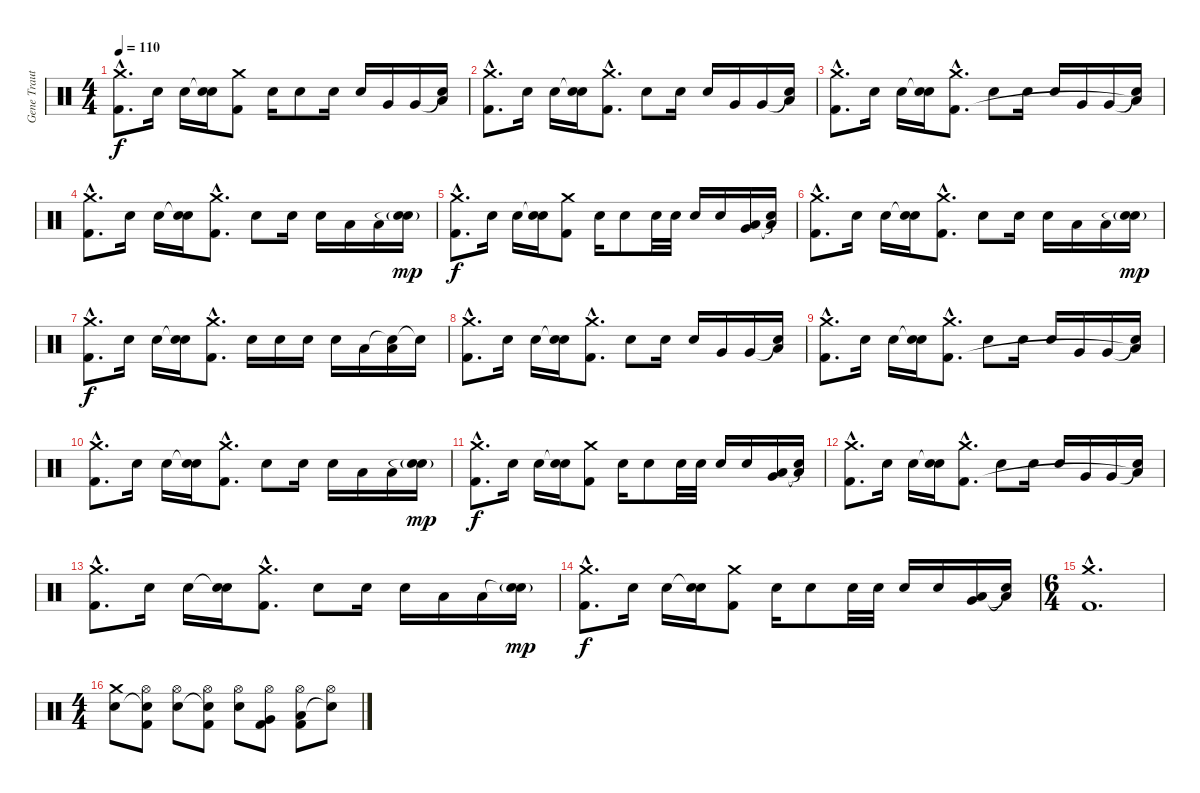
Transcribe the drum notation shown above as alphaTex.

\track ("Gene Trautmann (Drums)" "Gene Traut") {instrument percussion}
\staff {score}
\articulation defaults
\ts (4 4)
\tempo 110
\clef neutral
\ks c
("Crash medium (hit)"{hac} "Kick (hit) 2"{hac}).8{d dy f} "Electric Snare (hit)".16 "Electric Snare (hit)".16 ("Snare (hit)"{t} "Electric Snare (hit)").16 ("Crash medium (hit)" "Kick (hit) 2").8 "Electric Snare (hit)".16 "Electric Snare (hit)".8 "Electric Snare (hit)".16 "Electric Snare (hit)".16 "Very Low Tom (hit)".16 "Very Low Tom (hit)".16 ("Snare (hit)"{t} "Low Floor Tom (hit)").16 |
("Crash medium (hit)"{hac} "Kick (hit) 2"{hac}).8{d} "Electric Snare (hit)".16 "Electric Snare (hit)".16 ("Snare (hit)"{t} "Electric Snare (hit)").16 ("Crash medium (hit)"{hac} "Kick (hit) 2"{hac}).8{d} "Electric Snare (hit)".8 "Electric Snare (hit)".16 "Electric Snare (hit)".16 "Very Low Tom (hit)".16 "Very Low Tom (hit)".16 ("Snare (hit)"{t} "Low Floor Tom (hit)").16 |
("Crash medium (hit)"{hac} "Kick (hit) 2"{hac}).8{d} "Electric Snare (hit)".16 "Electric Snare (hit)".16 ("Snare (hit)"{t} "Electric Snare (hit)").16 ("Crash medium (hit)"{hac} "Kick (hit) 2"{hac}).8{d} "Electric Snare (hit)".8 "Electric Snare (hit)".16 "Electric Snare (hit)".16 "Very Low Tom (hit)".16 "Very Low Tom (hit)".16 ("Snare (hit)"{t} "Low Floor Tom (hit)"{t}).16 |
("Crash medium (hit)"{hac} "Kick (hit) 2"{hac}).8{d} "Electric Snare (hit)".16 "Electric Snare (hit)".16 ("Snare (hit)"{t} "Electric Snare (hit)").16 ("Crash medium (hit)"{hac} "Kick (hit) 2"{hac}).8{d} "Electric Snare (hit)".8 "Electric Snare (hit)".16 "Electric Snare (hit)".16 "Low Floor Tom (hit)".16 "Low Floor Tom (hit)".16 ("Snare (hit)"{t} "Electric Snare (hit)"{g}).16{dy mp} |
("Crash medium (hit)"{hac} "Kick (hit) 2"{hac}).8{d dy f} "Electric Snare (hit)".16 "Electric Snare (hit)".16 ("Snare (hit)"{t} "Electric Snare (hit)").16 ("Crash medium (hit)" "Kick (hit) 2").8 "Electric Snare (hit)".16 "Electric Snare (hit)".8 "Electric Snare (hit)".32 "Electric Snare (hit)".32 "Electric Snare (hit)".16 "Electric Snare (hit)".16 ("Very Low Tom (hit)" "Low Floor Tom (hit)").16 ("Snare (hit)"{t} "Low Floor Tom (hit)"{t}).16 |
("Crash medium (hit)"{hac} "Kick (hit) 2"{hac}).8{d} "Electric Snare (hit)".16 "Electric Snare (hit)".16 ("Snare (hit)"{t} "Electric Snare (hit)").16 ("Crash medium (hit)"{hac} "Kick (hit) 2"{hac}).8{d} "Electric Snare (hit)".8 "Electric Snare (hit)".16 "Electric Snare (hit)".16 "Low Floor Tom (hit)".16 "Low Floor Tom (hit)".16 ("Snare (hit)"{t} "Electric Snare (hit)"{g}).16{dy mp} |
("Crash medium (hit)"{hac} "Kick (hit) 2"{hac}).8{d dy f} "Electric Snare (hit)".16 "Electric Snare (hit)".16 ("Snare (hit)"{t} "Electric Snare (hit)").16 ("Crash medium (hit)"{hac} "Kick (hit) 2"{hac}).8{d} "Electric Snare (hit)".16 "Electric Snare (hit)".16 "Electric Snare (hit)".16 "Electric Snare (hit)".16 "Low Floor Tom (hit)".16 ("Snare (hit)"{t} "Low Floor Tom (hit)").16 "Snare (hit)"{t}.16 |
("Crash medium (hit)"{hac} "Kick (hit) 2"{hac}).8{d} "Electric Snare (hit)".16 "Electric Snare (hit)".16 ("Snare (hit)"{t} "Electric Snare (hit)").16 ("Crash medium (hit)"{hac} "Kick (hit) 2"{hac}).8{d} "Electric Snare (hit)".8 "Electric Snare (hit)".16 "Electric Snare (hit)".16 "Very Low Tom (hit)".16 "Very Low Tom (hit)".16 ("Snare (hit)"{t} "Low Floor Tom (hit)").16 |
("Crash medium (hit)"{hac} "Kick (hit) 2"{hac}).8{d} "Electric Snare (hit)".16 "Electric Snare (hit)".16 ("Snare (hit)"{t} "Electric Snare (hit)").16 ("Crash medium (hit)"{hac} "Kick (hit) 2"{hac}).8{d} "Electric Snare (hit)".8 "Electric Snare (hit)".16 "Electric Snare (hit)".16 "Very Low Tom (hit)".16 "Very Low Tom (hit)".16 ("Snare (hit)"{t} "Low Floor Tom (hit)"{t}).16 |
("Crash medium (hit)"{hac} "Kick (hit) 2"{hac}).8{d} "Electric Snare (hit)".16 "Electric Snare (hit)".16 ("Snare (hit)"{t} "Electric Snare (hit)").16 ("Crash medium (hit)"{hac} "Kick (hit) 2"{hac}).8{d} "Electric Snare (hit)".8 "Electric Snare (hit)".16 "Electric Snare (hit)".16 "Low Floor Tom (hit)".16 "Low Floor Tom (hit)".16 ("Snare (hit)"{t} "Electric Snare (hit)"{g}).16{dy mp} |
("Crash medium (hit)"{hac} "Kick (hit) 2"{hac}).8{d dy f} "Electric Snare (hit)".16 "Electric Snare (hit)".16 ("Snare (hit)"{t} "Electric Snare (hit)").16 ("Crash medium (hit)" "Kick (hit) 2").8 "Electric Snare (hit)".16 "Electric Snare (hit)".8 "Electric Snare (hit)".32 "Electric Snare (hit)".32 "Electric Snare (hit)".16 "Electric Snare (hit)".16 ("Very Low Tom (hit)" "Low Floor Tom (hit)").16 ("Snare (hit)"{t} "Low Floor Tom (hit)"{t}).16 |
("Crash medium (hit)"{hac} "Kick (hit) 2"{hac}).8{d} "Electric Snare (hit)".16 "Electric Snare (hit)".16 ("Snare (hit)"{t} "Electric Snare (hit)").16 ("Crash medium (hit)"{hac} "Kick (hit) 2"{hac}).8{d} "Electric Snare (hit)".8 "Electric Snare (hit)".16 "Electric Snare (hit)".16 "Very Low Tom (hit)".16 "Very Low Tom (hit)".16 ("Snare (hit)"{t} "Low Floor Tom (hit)"{t}).16 |
("Crash medium (hit)"{hac} "Kick (hit) 2"{hac}).8{d} "Electric Snare (hit)".16 "Electric Snare (hit)".16 ("Snare (hit)"{t} "Electric Snare (hit)").16 ("Crash medium (hit)"{hac} "Kick (hit) 2"{hac}).8{d} "Electric Snare (hit)".8 "Electric Snare (hit)".16 "Electric Snare (hit)".16 "Low Floor Tom (hit)".16 "Low Floor Tom (hit)".16 ("Snare (hit)"{t} "Electric Snare (hit)"{g}).16{dy mp} |
("Crash medium (hit)"{hac} "Kick (hit) 2"{hac}).8{d dy f} "Electric Snare (hit)".16 "Electric Snare (hit)".16 ("Snare (hit)"{t} "Electric Snare (hit)").16 ("Crash medium (hit)" "Kick (hit) 2").8 "Electric Snare (hit)".16 "Electric Snare (hit)".8 "Electric Snare (hit)".32 "Electric Snare (hit)".32 "Electric Snare (hit)".16 "Electric Snare (hit)".16 ("Very Low Tom (hit)" "Low Floor Tom (hit)").16 ("Snare (hit)"{t} "Low Floor Tom (hit)"{t}).16 |
\ts (6 4)
("Crash medium (hit)"{hac} "Kick (hit) 2"{hac}).1{d} |
\ts (4 4)
("Crash medium (hit)" "Electric Snare (hit)").8 ("Hi-Hat (open)" "Snare (hit)"{t} "Kick (hit) 2").8 ("Hi-Hat (open)" "Electric Snare (hit)").8 ("Hi-Hat (open)" "Snare (hit)"{t} "Kick (hit) 2").8 ("Hi-Hat (open)" "Electric Snare (hit)").8 ("Hi-Hat (open)" "Very Low Tom (hit)" "Kick (hit) 2").8 ("Hi-Hat (open)" "Low Floor Tom (hit)" "Kick (hit) 2").8 ("Hi-Hat (open)" "Snare (hit)"{t}).8
